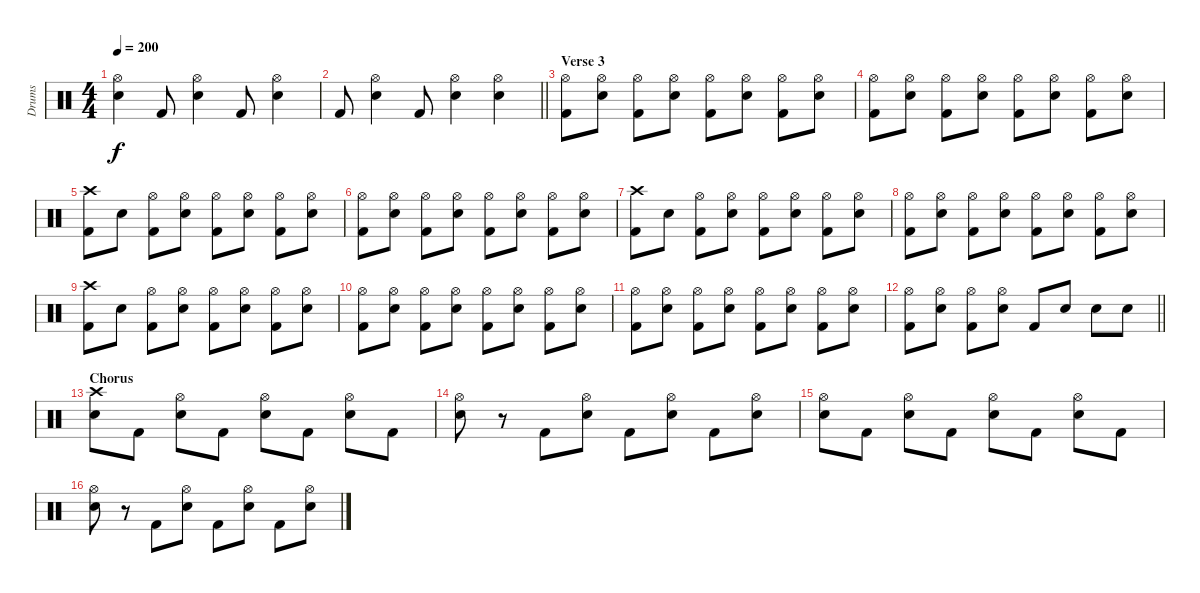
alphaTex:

\track ("Drums" "Drums") {instrument percussion}
\staff {score}
\articulation defaults
\ts (4 4)
\tempo 200
\clef neutral
\ks c
("Snare (hit) 2" "Hi-Hat (open)").4{dy f} "Kick (hit) 2".8 ("Snare (hit) 2" "Hi-Hat (open)").4 "Kick (hit) 2".8 ("Snare (hit) 2" "Hi-Hat (open)").4 |
\barLineRight lightlight "Kick (hit) 2".8
("Snare (hit) 2" "Hi-Hat (open)").4 "Kick (hit) 2".8 ("Snare (hit) 2" "Hi-Hat (open)").4 ("Snare (hit) 2" "Hi-Hat (open)").4 |
\section ("" "Verse 3")
("Hi-Hat (open)" "Kick (hit) 2").8 ("Snare (hit) 2" "Hi-Hat (open)").8 ("Hi-Hat (open)" "Kick (hit) 2").8 ("Snare (hit) 2" "Hi-Hat (open)").8 ("Hi-Hat (open)" "Kick (hit) 2").8 ("Snare (hit) 2" "Hi-Hat (open)").8 ("Hi-Hat (open)" "Kick (hit) 2").8 ("Snare (hit) 2" "Hi-Hat (open)").8 |
("Hi-Hat (open)" "Kick (hit) 2").8 ("Snare (hit) 2" "Hi-Hat (open)").8 ("Hi-Hat (open)" "Kick (hit) 2").8 ("Snare (hit) 2" "Hi-Hat (open)").8 ("Hi-Hat (open)" "Kick (hit) 2").8 ("Snare (hit) 2" "Hi-Hat (open)").8 ("Hi-Hat (open)" "Kick (hit) 2").8 ("Snare (hit) 2" "Hi-Hat (open)").8 |
("Crash high (hit)" "Kick (hit) 2").8 "Snare (hit) 2".8 ("Hi-Hat (open)" "Kick (hit) 2").8 ("Snare (hit) 2" "Hi-Hat (open)").8 ("Hi-Hat (open)" "Kick (hit) 2").8 ("Snare (hit) 2" "Hi-Hat (open)").8 ("Hi-Hat (open)" "Kick (hit) 2").8 ("Snare (hit) 2" "Hi-Hat (open)").8 |
("Hi-Hat (open)" "Kick (hit) 2").8 ("Snare (hit) 2" "Hi-Hat (open)").8 ("Hi-Hat (open)" "Kick (hit) 2").8 ("Snare (hit) 2" "Hi-Hat (open)").8 ("Hi-Hat (open)" "Kick (hit) 2").8 ("Snare (hit) 2" "Hi-Hat (open)").8 ("Hi-Hat (open)" "Kick (hit) 2").8 ("Snare (hit) 2" "Hi-Hat (open)").8 |
("Crash high (hit)" "Kick (hit) 2").8 "Snare (hit) 2".8 ("Hi-Hat (open)" "Kick (hit) 2").8 ("Snare (hit) 2" "Hi-Hat (open)").8 ("Hi-Hat (open)" "Kick (hit) 2").8 ("Snare (hit) 2" "Hi-Hat (open)").8 ("Hi-Hat (open)" "Kick (hit) 2").8 ("Snare (hit) 2" "Hi-Hat (open)").8 |
("Hi-Hat (open)" "Kick (hit) 2").8 ("Snare (hit) 2" "Hi-Hat (open)").8 ("Hi-Hat (open)" "Kick (hit) 2").8 ("Snare (hit) 2" "Hi-Hat (open)").8 ("Hi-Hat (open)" "Kick (hit) 2").8 ("Snare (hit) 2" "Hi-Hat (open)").8 ("Hi-Hat (open)" "Kick (hit) 2").8 ("Snare (hit) 2" "Hi-Hat (open)").8 |
("Crash high (hit)" "Kick (hit) 2").8 "Snare (hit) 2".8 ("Hi-Hat (open)" "Kick (hit) 2").8 ("Snare (hit) 2" "Hi-Hat (open)").8 ("Hi-Hat (open)" "Kick (hit) 2").8 ("Snare (hit) 2" "Hi-Hat (open)").8 ("Hi-Hat (open)" "Kick (hit) 2").8 ("Snare (hit) 2" "Hi-Hat (open)").8 |
("Hi-Hat (open)" "Kick (hit) 2").8 ("Snare (hit) 2" "Hi-Hat (open)").8 ("Hi-Hat (open)" "Kick (hit) 2").8 ("Snare (hit) 2" "Hi-Hat (open)").8 ("Hi-Hat (open)" "Kick (hit) 2").8 ("Snare (hit) 2" "Hi-Hat (open)").8 ("Hi-Hat (open)" "Kick (hit) 2").8 ("Snare (hit) 2" "Hi-Hat (open)").8 |
("Hi-Hat (open)" "Kick (hit) 2").8 ("Snare (hit) 2" "Hi-Hat (open)").8 ("Hi-Hat (open)" "Kick (hit) 2").8 ("Snare (hit) 2" "Hi-Hat (open)").8 ("Hi-Hat (open)" "Kick (hit) 2").8 ("Snare (hit) 2" "Hi-Hat (open)").8 ("Hi-Hat (open)" "Kick (hit) 2").8 ("Snare (hit) 2" "Hi-Hat (open)").8 |
\barLineRight lightlight
("Hi-Hat (open)" "Kick (hit) 2").8 ("Snare (hit) 2" "Hi-Hat (open)").8 ("Hi-Hat (open)" "Kick (hit) 2").8 ("Snare (hit) 2" "Hi-Hat (open)").8 "Kick (hit) 2".8 "Snare (hit) 2".8 "Snare (hit) 2".8 "Snare (hit) 2".8 |
\section ("" "Chorus")
("Crash high (hit)" "Snare (hit) 2").8 "Kick (hit) 2".8 ("Snare (hit) 2" "Hi-Hat (open)").8 "Kick (hit) 2".8 ("Snare (hit) 2" "Hi-Hat (open)").8 "Kick (hit) 2".8 ("Snare (hit) 2" "Hi-Hat (open)").8 "Kick (hit) 2".8 |
("Snare (hit) 2" "Hi-Hat (open)").8 r.8 "Kick (hit) 2".8 ("Snare (hit) 2" "Hi-Hat (open)").8 "Kick (hit) 2".8 ("Snare (hit) 2" "Hi-Hat (open)").8 "Kick (hit) 2".8 ("Snare (hit) 2" "Hi-Hat (open)").8 |
("Snare (hit) 2" "Hi-Hat (open)").8 "Kick (hit) 2".8 ("Snare (hit) 2" "Hi-Hat (open)").8 "Kick (hit) 2".8 ("Snare (hit) 2" "Hi-Hat (open)").8 "Kick (hit) 2".8 ("Snare (hit) 2" "Hi-Hat (open)").8 "Kick (hit) 2".8 |
("Snare (hit) 2" "Hi-Hat (open)").8 r.8 "Kick (hit) 2".8 ("Snare (hit) 2" "Hi-Hat (open)").8 "Kick (hit) 2".8 ("Snare (hit) 2" "Hi-Hat (open)").8 "Kick (hit) 2".8 ("Snare (hit) 2" "Hi-Hat (open)").8
